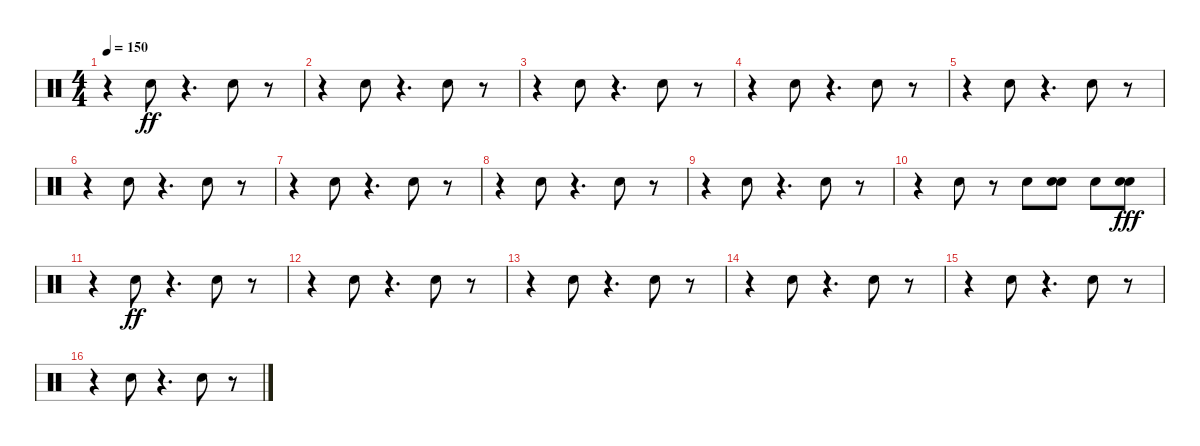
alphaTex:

\track "" {instrument percussion}
\staff {score}
\articulation defaults
\ts (4 4)
\tempo 150
\clef neutral
\ks c
r.4{dy ff} "Electric Snare (hit)".8 r.4{d} "Electric Snare (hit)".8 r.8 |
r.4 "Electric Snare (hit)".8 r.4{d} "Electric Snare (hit)".8 r.8 |
r.4 "Electric Snare (hit)".8 r.4{d} "Electric Snare (hit)".8 r.8 |
r.4 "Electric Snare (hit)".8 r.4{d} "Electric Snare (hit)".8 r.8 |
r.4 "Electric Snare (hit)".8 r.4{d} "Electric Snare (hit)".8 r.8 |
r.4 "Electric Snare (hit)".8 r.4{d} "Electric Snare (hit)".8 r.8 |
r.4 "Electric Snare (hit)".8 r.4{d} "Electric Snare (hit)".8 r.8 |
r.4 "Electric Snare (hit)".8 r.4{d} "Electric Snare (hit)".8 r.8 |
r.4 "Electric Snare (hit)".8 r.4{d} "Electric Snare (hit)".8 r.8 |
r.4 "Electric Snare (hit)".8 r.8 "Electric Snare (hit)".8 ("Electric Snare (hit)" "Electric Snare (hit)").8 "Electric Snare (hit)".8 ("Electric Snare (hit)" "Electric Snare (hit)").8{dy fff} |
r.4 "Electric Snare (hit)".8{dy ff} r.4{d} "Electric Snare (hit)".8 r.8 |
r.4 "Electric Snare (hit)".8 r.4{d} "Electric Snare (hit)".8 r.8 |
r.4 "Electric Snare (hit)".8 r.4{d} "Electric Snare (hit)".8 r.8 |
r.4 "Electric Snare (hit)".8 r.4{d} "Electric Snare (hit)".8 r.8 |
r.4 "Electric Snare (hit)".8 r.4{d} "Electric Snare (hit)".8 r.8 |
r.4 "Electric Snare (hit)".8 r.4{d} "Electric Snare (hit)".8 r.8
